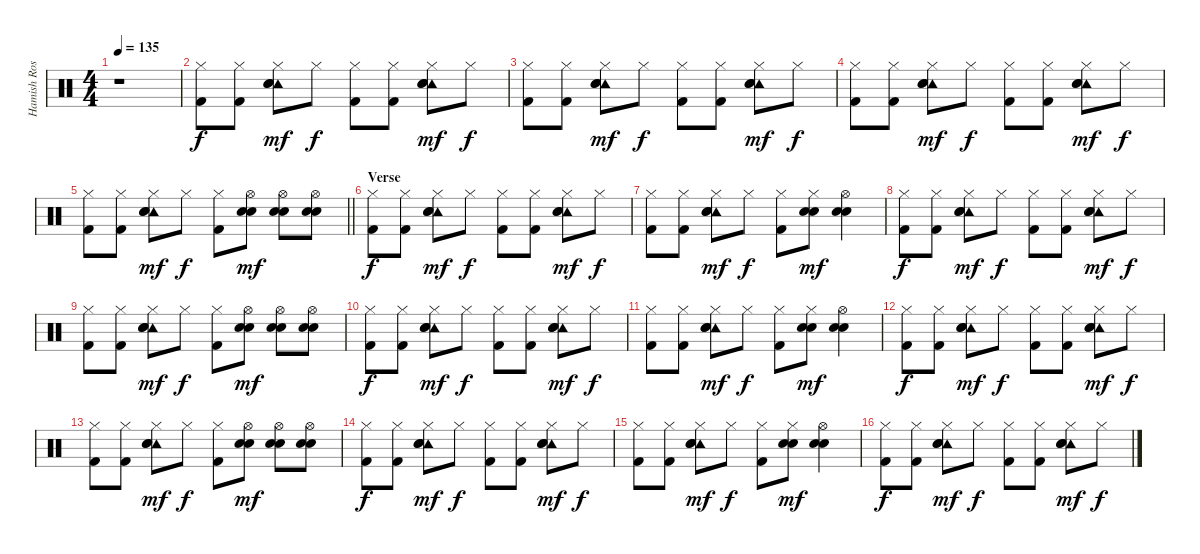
\track ("Hamish Rosser (Drums Track)" "Hamish Ros") {instrument percussion}
\staff {score}
\articulation defaults
\ts (4 4)
\tempo 135
\clef neutral
\ks c
r.1{dy f} |
("Hi-Hat (closed)" "Kick (hit) 2").8 ("Hi-Hat (closed)" "Kick (hit) 2").8 ("Hi-Hat (closed)" "Tambourine (hit)" "Electric Snare (hit)" "Hand Clap (hit)").8{dy mf} "Hi-Hat (closed)".8{dy f} ("Hi-Hat (closed)" "Kick (hit) 2").8 ("Hi-Hat (closed)" "Kick (hit) 2").8 ("Hi-Hat (closed)" "Tambourine (hit)" "Electric Snare (hit)" "Hand Clap (hit)").8{dy mf} "Hi-Hat (closed)".8{dy f} |
("Hi-Hat (closed)" "Kick (hit) 2").8 ("Hi-Hat (closed)" "Kick (hit) 2").8 ("Hi-Hat (closed)" "Tambourine (hit)" "Electric Snare (hit)" "Hand Clap (hit)").8{dy mf} "Hi-Hat (closed)".8{dy f} ("Hi-Hat (closed)" "Kick (hit) 2").8 ("Hi-Hat (closed)" "Kick (hit) 2").8 ("Hi-Hat (closed)" "Tambourine (hit)" "Electric Snare (hit)" "Hand Clap (hit)").8{dy mf} "Hi-Hat (closed)".8{dy f} |
("Hi-Hat (closed)" "Kick (hit) 2").8 ("Hi-Hat (closed)" "Kick (hit) 2").8 ("Hi-Hat (closed)" "Tambourine (hit)" "Electric Snare (hit)" "Hand Clap (hit)").8{dy mf} "Hi-Hat (closed)".8{dy f} ("Hi-Hat (closed)" "Kick (hit) 2").8 ("Hi-Hat (closed)" "Kick (hit) 2").8 ("Hi-Hat (closed)" "Tambourine (hit)" "Electric Snare (hit)" "Hand Clap (hit)").8{dy mf} "Hi-Hat (closed)".8{dy f} |
\barLineRight lightlight
("Hi-Hat (closed)" "Kick (hit) 2").8 ("Hi-Hat (closed)" "Kick (hit) 2").8 ("Hi-Hat (closed)" "Tambourine (hit)" "Electric Snare (hit)" "Hand Clap (hit)").8{dy mf} "Hi-Hat (closed)".8{dy f} ("Hi-Hat (closed)" "Kick (hit) 2").8 ("Hi-Hat (open)" "Electric Snare (hit)" "Hand Clap (hit)").8{dy mf} ("Hi-Hat (open)" "Electric Snare (hit)" "Hand Clap (hit)").8 ("Hi-Hat (open)" "Electric Snare (hit)" "Hand Clap (hit)").8 |
\section ("" "Verse")
("Hi-Hat (closed)" "Kick (hit) 2").8{dy f} ("Hi-Hat (closed)" "Kick (hit) 2").8 ("Hi-Hat (closed)" "Tambourine (hit)" "Electric Snare (hit)" "Hand Clap (hit)").8{dy mf} "Hi-Hat (closed)".8{dy f} ("Hi-Hat (closed)" "Kick (hit) 2").8 ("Hi-Hat (closed)" "Kick (hit) 2").8 ("Hi-Hat (closed)" "Tambourine (hit)" "Electric Snare (hit)" "Hand Clap (hit)").8{dy mf} "Hi-Hat (closed)".8{dy f} |
("Hi-Hat (closed)" "Kick (hit) 2").8 ("Hi-Hat (closed)" "Kick (hit) 2").8 ("Hi-Hat (closed)" "Tambourine (hit)" "Electric Snare (hit)" "Hand Clap (hit)").8{dy mf} "Hi-Hat (closed)".8{dy f} ("Hi-Hat (closed)" "Kick (hit) 2").8 ("Hi-Hat (closed)" "Electric Snare (hit)" "Hand Clap (hit)").8{dy mf} ("Hi-Hat (open)" "Electric Snare (hit)" "Hand Clap (hit)").4 |
("Hi-Hat (closed)" "Kick (hit) 2").8{dy f} ("Hi-Hat (closed)" "Kick (hit) 2").8 ("Hi-Hat (closed)" "Tambourine (hit)" "Electric Snare (hit)" "Hand Clap (hit)").8{dy mf} "Hi-Hat (closed)".8{dy f} ("Hi-Hat (closed)" "Kick (hit) 2").8 ("Hi-Hat (closed)" "Kick (hit) 2").8 ("Hi-Hat (closed)" "Tambourine (hit)" "Electric Snare (hit)" "Hand Clap (hit)").8{dy mf} "Hi-Hat (closed)".8{dy f} |
("Hi-Hat (closed)" "Kick (hit) 2").8 ("Hi-Hat (closed)" "Kick (hit) 2").8 ("Hi-Hat (closed)" "Tambourine (hit)" "Electric Snare (hit)" "Hand Clap (hit)").8{dy mf} "Hi-Hat (closed)".8{dy f} ("Hi-Hat (closed)" "Kick (hit) 2").8 ("Hi-Hat (open)" "Electric Snare (hit)" "Hand Clap (hit)").8{dy mf} ("Hi-Hat (open)" "Electric Snare (hit)" "Hand Clap (hit)").8 ("Hi-Hat (open)" "Electric Snare (hit)" "Hand Clap (hit)").8 |
("Hi-Hat (closed)" "Kick (hit) 2").8{dy f} ("Hi-Hat (closed)" "Kick (hit) 2").8 ("Hi-Hat (closed)" "Tambourine (hit)" "Electric Snare (hit)" "Hand Clap (hit)").8{dy mf} "Hi-Hat (closed)".8{dy f} ("Hi-Hat (closed)" "Kick (hit) 2").8 ("Hi-Hat (closed)" "Kick (hit) 2").8 ("Hi-Hat (closed)" "Tambourine (hit)" "Electric Snare (hit)" "Hand Clap (hit)").8{dy mf} "Hi-Hat (closed)".8{dy f} |
("Hi-Hat (closed)" "Kick (hit) 2").8 ("Hi-Hat (closed)" "Kick (hit) 2").8 ("Hi-Hat (closed)" "Tambourine (hit)" "Electric Snare (hit)" "Hand Clap (hit)").8{dy mf} "Hi-Hat (closed)".8{dy f} ("Hi-Hat (closed)" "Kick (hit) 2").8 ("Hi-Hat (closed)" "Electric Snare (hit)" "Hand Clap (hit)").8{dy mf} ("Hi-Hat (open)" "Electric Snare (hit)" "Hand Clap (hit)").4 |
("Hi-Hat (closed)" "Kick (hit) 2").8{dy f} ("Hi-Hat (closed)" "Kick (hit) 2").8 ("Hi-Hat (closed)" "Tambourine (hit)" "Electric Snare (hit)" "Hand Clap (hit)").8{dy mf} "Hi-Hat (closed)".8{dy f} ("Hi-Hat (closed)" "Kick (hit) 2").8 ("Hi-Hat (closed)" "Kick (hit) 2").8 ("Hi-Hat (closed)" "Tambourine (hit)" "Electric Snare (hit)" "Hand Clap (hit)").8{dy mf} "Hi-Hat (closed)".8{dy f} |
("Hi-Hat (closed)" "Kick (hit) 2").8 ("Hi-Hat (closed)" "Kick (hit) 2").8 ("Hi-Hat (closed)" "Tambourine (hit)" "Electric Snare (hit)" "Hand Clap (hit)").8{dy mf} "Hi-Hat (closed)".8{dy f} ("Hi-Hat (closed)" "Kick (hit) 2").8 ("Hi-Hat (open)" "Electric Snare (hit)" "Hand Clap (hit)").8{dy mf} ("Hi-Hat (open)" "Electric Snare (hit)" "Hand Clap (hit)").8 ("Hi-Hat (open)" "Electric Snare (hit)" "Hand Clap (hit)").8 |
("Hi-Hat (closed)" "Kick (hit) 2").8{dy f} ("Hi-Hat (closed)" "Kick (hit) 2").8 ("Hi-Hat (closed)" "Tambourine (hit)" "Electric Snare (hit)" "Hand Clap (hit)").8{dy mf} "Hi-Hat (closed)".8{dy f} ("Hi-Hat (closed)" "Kick (hit) 2").8 ("Hi-Hat (closed)" "Kick (hit) 2").8 ("Hi-Hat (closed)" "Tambourine (hit)" "Electric Snare (hit)" "Hand Clap (hit)").8{dy mf} "Hi-Hat (closed)".8{dy f} |
("Hi-Hat (closed)" "Kick (hit) 2").8 ("Hi-Hat (closed)" "Kick (hit) 2").8 ("Hi-Hat (closed)" "Tambourine (hit)" "Electric Snare (hit)" "Hand Clap (hit)").8{dy mf} "Hi-Hat (closed)".8{dy f} ("Hi-Hat (closed)" "Kick (hit) 2").8 ("Hi-Hat (closed)" "Electric Snare (hit)" "Hand Clap (hit)").8{dy mf} ("Hi-Hat (open)" "Electric Snare (hit)" "Hand Clap (hit)").4 |
("Hi-Hat (closed)" "Kick (hit) 2").8{dy f} ("Hi-Hat (closed)" "Kick (hit) 2").8 ("Hi-Hat (closed)" "Tambourine (hit)" "Electric Snare (hit)" "Hand Clap (hit)").8{dy mf} "Hi-Hat (closed)".8{dy f} ("Hi-Hat (closed)" "Kick (hit) 2").8 ("Hi-Hat (closed)" "Kick (hit) 2").8 ("Hi-Hat (closed)" "Tambourine (hit)" "Electric Snare (hit)" "Hand Clap (hit)").8{dy mf} "Hi-Hat (closed)".8{dy f}
